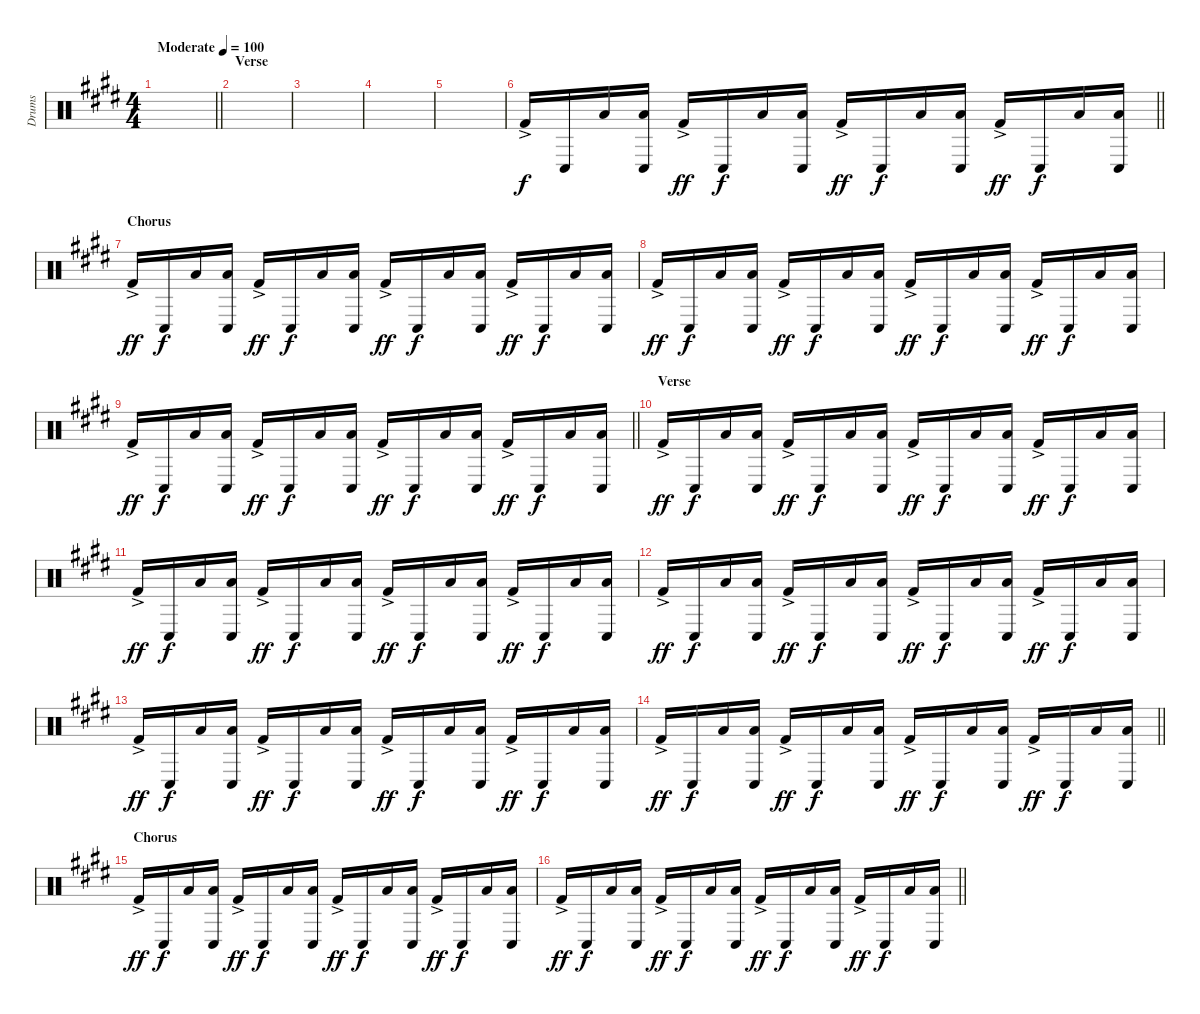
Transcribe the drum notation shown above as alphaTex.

\track ("Drums" "Drums") {instrument percussion}
\staff {score}
\articulation defaults
\ts (4 4)
\tempo (100 "Moderate")
\clef neutral
\barLineRight lightlight
\ks e
|
\section ("" "Verse")
|
|
|
|
\barLineRight lightlight "Kick (hit) 2"{ac}.16 "Conga low (hit)".16{dy f} "Low Tom (hit)".16
("Low Tom (hit)" "Conga low (hit)").16 "Kick (hit) 2"{ac}.16{dy ff} "Conga low (hit)".16{dy f} "Low Tom (hit)".16 ("Low Tom (hit)" "Conga low (hit)").16 "Kick (hit) 2"{ac}.16{dy ff} "Conga low (hit)".16{dy f} "Low Tom (hit)".16 ("Low Tom (hit)" "Conga low (hit)").16 "Kick (hit) 2"{ac}.16{dy ff} "Conga low (hit)".16{dy f} "Low Tom (hit)".16 ("Low Tom (hit)" "Conga low (hit)").16 |
\section ("" "Chorus")
"Kick (hit) 2"{ac}.16{dy ff} "Conga low (hit)".16{dy f} "Low Tom (hit)".16 ("Low Tom (hit)" "Conga low (hit)").16 "Kick (hit) 2"{ac}.16{dy ff} "Conga low (hit)".16{dy f} "Low Tom (hit)".16 ("Low Tom (hit)" "Conga low (hit)").16 "Kick (hit) 2"{ac}.16{dy ff} "Conga low (hit)".16{dy f} "Low Tom (hit)".16 ("Low Tom (hit)" "Conga low (hit)").16 "Kick (hit) 2"{ac}.16{dy ff} "Conga low (hit)".16{dy f} "Low Tom (hit)".16 ("Low Tom (hit)" "Conga low (hit)").16 |
"Kick (hit) 2"{ac}.16{dy ff} "Conga low (hit)".16{dy f} "Low Tom (hit)".16 ("Low Tom (hit)" "Conga low (hit)").16 "Kick (hit) 2"{ac}.16{dy ff} "Conga low (hit)".16{dy f} "Low Tom (hit)".16 ("Low Tom (hit)" "Conga low (hit)").16 "Kick (hit) 2"{ac}.16{dy ff} "Conga low (hit)".16{dy f} "Low Tom (hit)".16 ("Low Tom (hit)" "Conga low (hit)").16 "Kick (hit) 2"{ac}.16{dy ff} "Conga low (hit)".16{dy f} "Low Tom (hit)".16 ("Low Tom (hit)" "Conga low (hit)").16 |
\barLineRight lightlight "Kick (hit) 2"{ac}.16{dy ff} "Conga low (hit)".16{dy f} "Low Tom (hit)".16
("Low Tom (hit)" "Conga low (hit)").16 "Kick (hit) 2"{ac}.16{dy ff} "Conga low (hit)".16{dy f} "Low Tom (hit)".16 ("Low Tom (hit)" "Conga low (hit)").16 "Kick (hit) 2"{ac}.16{dy ff} "Conga low (hit)".16{dy f} "Low Tom (hit)".16 ("Low Tom (hit)" "Conga low (hit)").16 "Kick (hit) 2"{ac}.16{dy ff} "Conga low (hit)".16{dy f} "Low Tom (hit)".16 ("Low Tom (hit)" "Conga low (hit)").16 |
\section ("" "Verse")
"Kick (hit) 2"{ac}.16{dy ff} "Conga low (hit)".16{dy f} "Low Tom (hit)".16 ("Low Tom (hit)" "Conga low (hit)").16 "Kick (hit) 2"{ac}.16{dy ff} "Conga low (hit)".16{dy f} "Low Tom (hit)".16 ("Low Tom (hit)" "Conga low (hit)").16 "Kick (hit) 2"{ac}.16{dy ff} "Conga low (hit)".16{dy f} "Low Tom (hit)".16 ("Low Tom (hit)" "Conga low (hit)").16 "Kick (hit) 2"{ac}.16{dy ff} "Conga low (hit)".16{dy f} "Low Tom (hit)".16 ("Low Tom (hit)" "Conga low (hit)").16 |
"Kick (hit) 2"{ac}.16{dy ff} "Conga low (hit)".16{dy f} "Low Tom (hit)".16 ("Low Tom (hit)" "Conga low (hit)").16 "Kick (hit) 2"{ac}.16{dy ff} "Conga low (hit)".16{dy f} "Low Tom (hit)".16 ("Low Tom (hit)" "Conga low (hit)").16 "Kick (hit) 2"{ac}.16{dy ff} "Conga low (hit)".16{dy f} "Low Tom (hit)".16 ("Low Tom (hit)" "Conga low (hit)").16 "Kick (hit) 2"{ac}.16{dy ff} "Conga low (hit)".16{dy f} "Low Tom (hit)".16 ("Low Tom (hit)" "Conga low (hit)").16 |
"Kick (hit) 2"{ac}.16{dy ff} "Conga low (hit)".16{dy f} "Low Tom (hit)".16 ("Low Tom (hit)" "Conga low (hit)").16 "Kick (hit) 2"{ac}.16{dy ff} "Conga low (hit)".16{dy f} "Low Tom (hit)".16 ("Low Tom (hit)" "Conga low (hit)").16 "Kick (hit) 2"{ac}.16{dy ff} "Conga low (hit)".16{dy f} "Low Tom (hit)".16 ("Low Tom (hit)" "Conga low (hit)").16 "Kick (hit) 2"{ac}.16{dy ff} "Conga low (hit)".16{dy f} "Low Tom (hit)".16 ("Low Tom (hit)" "Conga low (hit)").16 |
"Kick (hit) 2"{ac}.16{dy ff} "Conga low (hit)".16{dy f} "Low Tom (hit)".16 ("Low Tom (hit)" "Conga low (hit)").16 "Kick (hit) 2"{ac}.16{dy ff} "Conga low (hit)".16{dy f} "Low Tom (hit)".16 ("Low Tom (hit)" "Conga low (hit)").16 "Kick (hit) 2"{ac}.16{dy ff} "Conga low (hit)".16{dy f} "Low Tom (hit)".16 ("Low Tom (hit)" "Conga low (hit)").16 "Kick (hit) 2"{ac}.16{dy ff} "Conga low (hit)".16{dy f} "Low Tom (hit)".16 ("Low Tom (hit)" "Conga low (hit)").16 |
\barLineRight lightlight "Kick (hit) 2"{ac}.16{dy ff} "Conga low (hit)".16{dy f} "Low Tom (hit)".16
("Low Tom (hit)" "Conga low (hit)").16 "Kick (hit) 2"{ac}.16{dy ff} "Conga low (hit)".16{dy f} "Low Tom (hit)".16 ("Low Tom (hit)" "Conga low (hit)").16 "Kick (hit) 2"{ac}.16{dy ff} "Conga low (hit)".16{dy f} "Low Tom (hit)".16 ("Low Tom (hit)" "Conga low (hit)").16 "Kick (hit) 2"{ac}.16{dy ff} "Conga low (hit)".16{dy f} "Low Tom (hit)".16 ("Low Tom (hit)" "Conga low (hit)").16 |
\section ("" "Chorus")
"Kick (hit) 2"{ac}.16{dy ff} "Conga low (hit)".16{dy f} "Low Tom (hit)".16 ("Low Tom (hit)" "Conga low (hit)").16 "Kick (hit) 2"{ac}.16{dy ff} "Conga low (hit)".16{dy f} "Low Tom (hit)".16 ("Low Tom (hit)" "Conga low (hit)").16 "Kick (hit) 2"{ac}.16{dy ff} "Conga low (hit)".16{dy f} "Low Tom (hit)".16 ("Low Tom (hit)" "Conga low (hit)").16 "Kick (hit) 2"{ac}.16{dy ff} "Conga low (hit)".16{dy f} "Low Tom (hit)".16 ("Low Tom (hit)" "Conga low (hit)").16 |
\barLineRight lightlight "Kick (hit) 2"{ac}.16{dy ff} "Conga low (hit)".16{dy f} "Low Tom (hit)".16
("Low Tom (hit)" "Conga low (hit)").16 "Kick (hit) 2"{ac}.16{dy ff} "Conga low (hit)".16{dy f} "Low Tom (hit)".16 ("Low Tom (hit)" "Conga low (hit)").16 "Kick (hit) 2"{ac}.16{dy ff} "Conga low (hit)".16{dy f} "Low Tom (hit)".16 ("Low Tom (hit)" "Conga low (hit)").16 "Kick (hit) 2"{ac}.16{dy ff} "Conga low (hit)".16{dy f} "Low Tom (hit)".16 ("Low Tom (hit)" "Conga low (hit)").16
